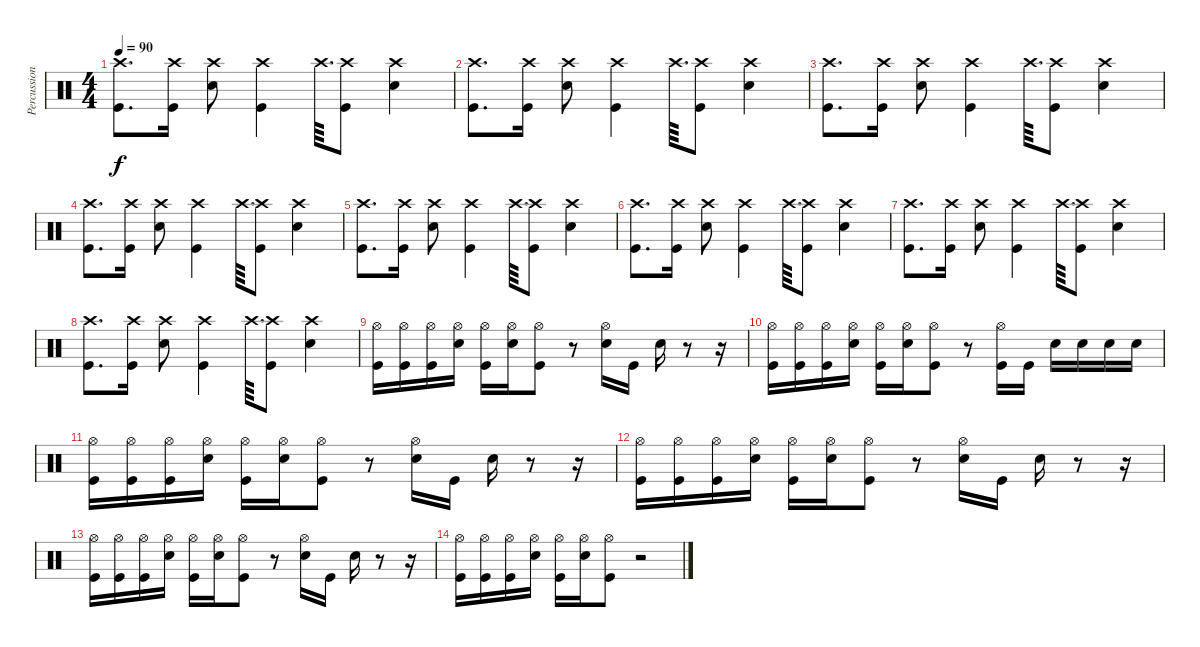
\track ("Percussion courtesy of unknown user" "Percussion") {instrument percussion}
\staff {score}
\articulation defaults
\ts (4 4)
\tempo 90
\clef neutral
\ks c
("Crash high (hit)" "Kick (hit)").8{d dy f} ("Crash high (hit)" "Kick (hit)").16 ("Crash high (hit)" "Snare (hit) 2").8 ("Crash high (hit)" "Kick (hit)").4 "Crash high (hit)".64{d} ("Crash high (hit)" "Kick (hit)").8 ("Crash high (hit)" "Snare (hit) 2").4 |
("Crash high (hit)" "Kick (hit)").8{d} ("Crash high (hit)" "Kick (hit)").16 ("Crash high (hit)" "Snare (hit) 2").8 ("Crash high (hit)" "Kick (hit)").4 "Crash high (hit)".64{d} ("Crash high (hit)" "Kick (hit)").8 ("Crash high (hit)" "Snare (hit) 2").4 |
("Crash high (hit)" "Kick (hit)").8{d} ("Crash high (hit)" "Kick (hit)").16 ("Crash high (hit)" "Snare (hit) 2").8 ("Crash high (hit)" "Kick (hit)").4 "Crash high (hit)".64{d} ("Crash high (hit)" "Kick (hit)").8 ("Crash high (hit)" "Snare (hit) 2").4 |
("Crash high (hit)" "Kick (hit)").8{d} ("Crash high (hit)" "Kick (hit)").16 ("Crash high (hit)" "Snare (hit) 2").8 ("Crash high (hit)" "Kick (hit)").4 "Crash high (hit)".64{d} ("Crash high (hit)" "Kick (hit)").8 ("Crash high (hit)" "Snare (hit) 2").4 |
("Crash high (hit)" "Kick (hit)").8{d} ("Crash high (hit)" "Kick (hit)").16 ("Crash high (hit)" "Snare (hit) 2").8 ("Crash high (hit)" "Kick (hit)").4 "Crash high (hit)".64{d} ("Crash high (hit)" "Kick (hit)").8 ("Crash high (hit)" "Snare (hit) 2").4 |
("Crash high (hit)" "Kick (hit)").8{d} ("Crash high (hit)" "Kick (hit)").16 ("Crash high (hit)" "Snare (hit) 2").8 ("Crash high (hit)" "Kick (hit)").4 "Crash high (hit)".64{d} ("Crash high (hit)" "Kick (hit)").8 ("Crash high (hit)" "Snare (hit) 2").4 |
("Crash high (hit)" "Kick (hit)").8{d} ("Crash high (hit)" "Kick (hit)").16 ("Crash high (hit)" "Snare (hit) 2").8 ("Crash high (hit)" "Kick (hit)").4 "Crash high (hit)".64{d} ("Crash high (hit)" "Kick (hit)").8 ("Crash high (hit)" "Snare (hit) 2").4 |
("Crash high (hit)" "Kick (hit)").8{d} ("Crash high (hit)" "Kick (hit)").16 ("Crash high (hit)" "Snare (hit) 2").8 ("Crash high (hit)" "Kick (hit)").4 "Crash high (hit)".64{d} ("Crash high (hit)" "Kick (hit)").8 ("Crash high (hit)" "Snare (hit) 2").4 |
("Hi-Hat (open)" "Kick (hit)").16 ("Hi-Hat (open)" "Kick (hit)").16 ("Hi-Hat (open)" "Kick (hit)").16 ("Hi-Hat (open)" "Snare (hit) 2").16 ("Hi-Hat (open)" "Kick (hit)").16 ("Hi-Hat (open)" "Snare (hit) 2").16 ("Hi-Hat (open)" "Kick (hit)").8 r.8 ("Hi-Hat (open)" "Snare (hit) 2").16 "Kick (hit)".16 "Snare (hit) 2".16 r.8 r.16 |
("Hi-Hat (open)" "Kick (hit)").16 ("Hi-Hat (open)" "Kick (hit)").16 ("Hi-Hat (open)" "Kick (hit)").16 ("Hi-Hat (open)" "Snare (hit) 2").16 ("Hi-Hat (open)" "Kick (hit)").16 ("Hi-Hat (open)" "Snare (hit) 2").16 ("Hi-Hat (open)" "Kick (hit)").8 r.8 ("Hi-Hat (open)" "Kick (hit)").16 "Kick (hit)".16 "Snare (hit) 2".16 "Snare (hit) 2".16 "Snare (hit) 2".16 "Snare (hit) 2".16 |
("Hi-Hat (open)" "Kick (hit)").16 ("Hi-Hat (open)" "Kick (hit)").16 ("Hi-Hat (open)" "Kick (hit)").16 ("Hi-Hat (open)" "Snare (hit) 2").16 ("Hi-Hat (open)" "Kick (hit)").16 ("Hi-Hat (open)" "Snare (hit) 2").16 ("Hi-Hat (open)" "Kick (hit)").8 r.8 ("Hi-Hat (open)" "Snare (hit) 2").16 "Kick (hit)".16 "Snare (hit) 2".16 r.8 r.16 |
("Hi-Hat (open)" "Kick (hit)").16 ("Hi-Hat (open)" "Kick (hit)").16 ("Hi-Hat (open)" "Kick (hit)").16 ("Hi-Hat (open)" "Snare (hit) 2").16 ("Hi-Hat (open)" "Kick (hit)").16 ("Hi-Hat (open)" "Snare (hit) 2").16 ("Hi-Hat (open)" "Kick (hit)").8 r.8 ("Hi-Hat (open)" "Snare (hit) 2").16 "Kick (hit)".16 "Snare (hit) 2".16 r.8 r.16 |
("Hi-Hat (open)" "Kick (hit)").16 ("Hi-Hat (open)" "Kick (hit)").16 ("Hi-Hat (open)" "Kick (hit)").16 ("Hi-Hat (open)" "Snare (hit) 2").16 ("Hi-Hat (open)" "Kick (hit)").16 ("Hi-Hat (open)" "Snare (hit) 2").16 ("Hi-Hat (open)" "Kick (hit)").8 r.8 ("Hi-Hat (open)" "Snare (hit) 2").16 "Kick (hit)".16 "Snare (hit) 2".16 r.8 r.16 |
("Hi-Hat (open)" "Kick (hit)").16 ("Hi-Hat (open)" "Kick (hit)").16 ("Hi-Hat (open)" "Kick (hit)").16 ("Hi-Hat (open)" "Snare (hit) 2").16 ("Hi-Hat (open)" "Kick (hit)").16 ("Hi-Hat (open)" "Snare (hit) 2").16 ("Hi-Hat (open)" "Kick (hit)").8 r.2
